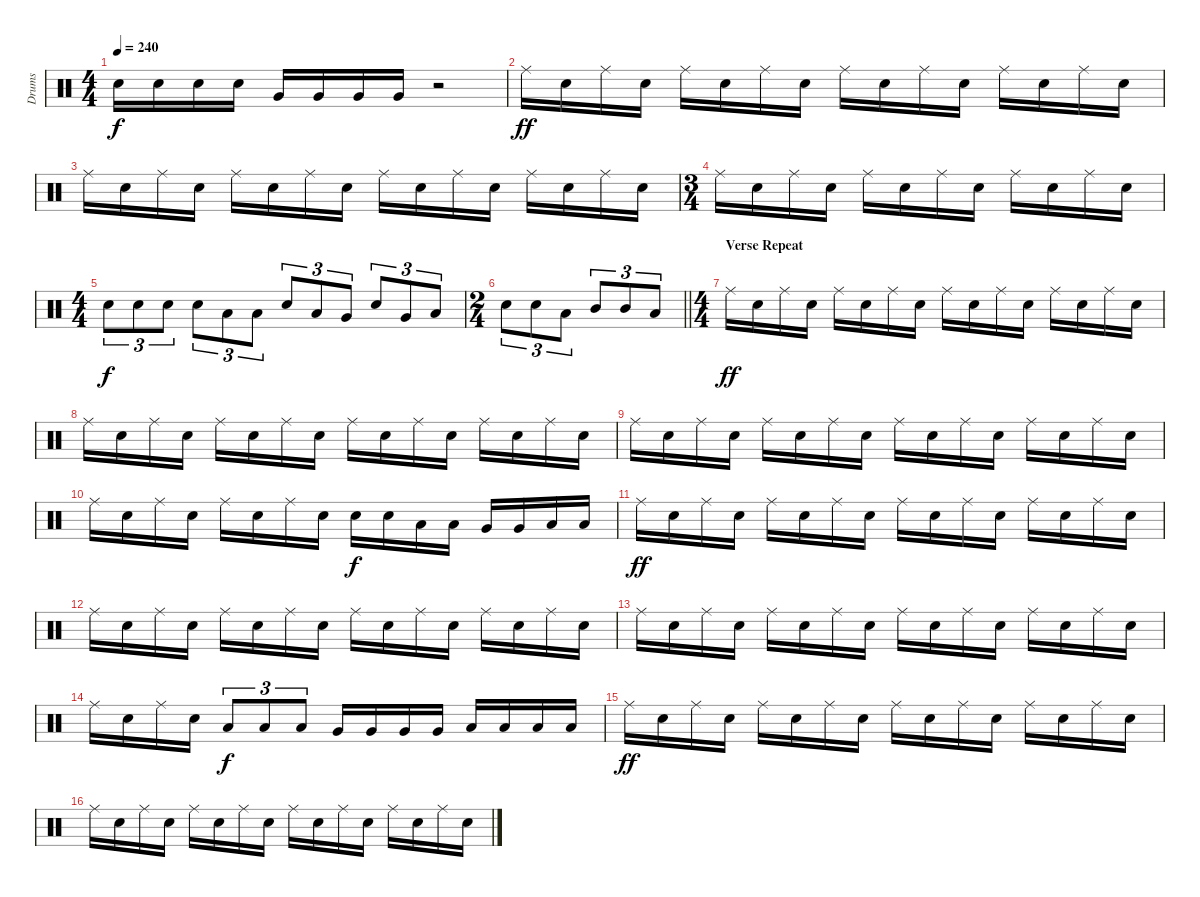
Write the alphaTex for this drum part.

\track ("Drums" "Drums") {instrument percussion}
\staff {score}
\articulation defaults
\ts (4 4)
\tempo 240
\clef neutral
\ks c "Electric Snare (hit)".16{dy f} "Electric Snare (hit)".16 "Electric Snare (hit)".16 "Electric Snare (hit)".16 "Very Low Tom (hit)".16 "Very Low Tom (hit)".16 "Very Low Tom (hit)".16 "Very Low Tom (hit)".16
r.2 |
"Ride (middle)".16{dy ff} "Electric Snare (hit)".16 "Ride (middle)".16 "Electric Snare (hit)".16 "Ride (middle)".16 "Electric Snare (hit)".16 "Ride (middle)".16 "Electric Snare (hit)".16 "Ride (middle)".16 "Electric Snare (hit)".16 "Ride (middle)".16 "Electric Snare (hit)".16 "Ride (middle)".16 "Electric Snare (hit)".16 "Ride (middle)".16 "Electric Snare (hit)".16 |
"Ride (middle)".16 "Electric Snare (hit)".16 "Ride (middle)".16 "Electric Snare (hit)".16 "Ride (middle)".16 "Electric Snare (hit)".16 "Ride (middle)".16 "Electric Snare (hit)".16 "Ride (middle)".16 "Electric Snare (hit)".16 "Ride (middle)".16 "Electric Snare (hit)".16 "Ride (middle)".16 "Electric Snare (hit)".16 "Ride (middle)".16 "Electric Snare (hit)".16 |
\ts (3 4)
"Ride (middle)".16 "Electric Snare (hit)".16 "Ride (middle)".16 "Electric Snare (hit)".16 "Ride (middle)".16 "Electric Snare (hit)".16 "Ride (middle)".16 "Electric Snare (hit)".16 "Ride (middle)".16 "Electric Snare (hit)".16 "Ride (middle)".16 "Electric Snare (hit)".16 |
\ts (4 4)
"Electric Snare (hit)".8{tu (3 2) dy f} "Electric Snare (hit)".8{tu (3 2)} "Electric Snare (hit)".8{tu (3 2)} "Electric Snare (hit)".8{tu (3 2)} "Low Tom (hit)".8{tu (3 2)} "Low Tom (hit)".8{tu (3 2)} "Electric Snare (hit)".8{tu (3 2)} "Low Tom (hit)".8{tu (3 2)} "Very Low Tom (hit)".8{tu (3 2)} "Electric Snare (hit)".8{tu (3 2)} "Very Low Tom (hit)".8{tu (3 2)} "Low Floor Tom (hit)".8{tu (3 2)} |
\ts (2 4)
\barLineRight lightlight "Electric Snare (hit)".8{tu (3 2)} "Electric Snare (hit)".8{tu (3 2)} "Low Tom (hit)".8{tu (3 2)} "Mid Tom (hit)".8{tu (3 2)} "Mid Tom (hit)".8{tu (3 2)} "Low Tom (hit)".8{tu (3 2)}
|
\ts (4 4)
\section ("" "Verse Repeat")
"Ride (middle)".16{dy ff} "Electric Snare (hit)".16 "Ride (middle)".16 "Electric Snare (hit)".16 "Ride (middle)".16 "Electric Snare (hit)".16 "Ride (middle)".16 "Electric Snare (hit)".16 "Ride (middle)".16 "Electric Snare (hit)".16 "Ride (middle)".16 "Electric Snare (hit)".16 "Ride (middle)".16 "Electric Snare (hit)".16 "Ride (middle)".16 "Electric Snare (hit)".16 |
"Ride (middle)".16 "Electric Snare (hit)".16 "Ride (middle)".16 "Electric Snare (hit)".16 "Ride (middle)".16 "Electric Snare (hit)".16 "Ride (middle)".16 "Electric Snare (hit)".16 "Ride (middle)".16 "Electric Snare (hit)".16 "Ride (middle)".16 "Electric Snare (hit)".16 "Ride (middle)".16 "Electric Snare (hit)".16 "Ride (middle)".16 "Electric Snare (hit)".16 |
"Ride (middle)".16 "Electric Snare (hit)".16 "Ride (middle)".16 "Electric Snare (hit)".16 "Ride (middle)".16 "Electric Snare (hit)".16 "Ride (middle)".16 "Electric Snare (hit)".16 "Ride (middle)".16 "Electric Snare (hit)".16 "Ride (middle)".16 "Electric Snare (hit)".16 "Ride (middle)".16 "Electric Snare (hit)".16 "Ride (middle)".16 "Electric Snare (hit)".16 |
"Ride (middle)".16 "Electric Snare (hit)".16 "Ride (middle)".16 "Electric Snare (hit)".16 "Ride (middle)".16 "Electric Snare (hit)".16 "Ride (middle)".16 "Electric Snare (hit)".16 "Electric Snare (hit)".16{dy f} "Electric Snare (hit)".16 "Low Tom (hit)".16 "Low Tom (hit)".16 "Very Low Tom (hit)".16 "Very Low Tom (hit)".16 "Low Floor Tom (hit)".16 "Low Floor Tom (hit)".16 |
"Ride (middle)".16{dy ff} "Electric Snare (hit)".16 "Ride (middle)".16 "Electric Snare (hit)".16 "Ride (middle)".16 "Electric Snare (hit)".16 "Ride (middle)".16 "Electric Snare (hit)".16 "Ride (middle)".16 "Electric Snare (hit)".16 "Ride (middle)".16 "Electric Snare (hit)".16 "Ride (middle)".16 "Electric Snare (hit)".16 "Ride (middle)".16 "Electric Snare (hit)".16 |
"Ride (middle)".16 "Electric Snare (hit)".16 "Ride (middle)".16 "Electric Snare (hit)".16 "Ride (middle)".16 "Electric Snare (hit)".16 "Ride (middle)".16 "Electric Snare (hit)".16 "Ride (middle)".16 "Electric Snare (hit)".16 "Ride (middle)".16 "Electric Snare (hit)".16 "Ride (middle)".16 "Electric Snare (hit)".16 "Ride (middle)".16 "Electric Snare (hit)".16 |
"Ride (middle)".16 "Electric Snare (hit)".16 "Ride (middle)".16 "Electric Snare (hit)".16 "Ride (middle)".16 "Electric Snare (hit)".16 "Ride (middle)".16 "Electric Snare (hit)".16 "Ride (middle)".16 "Electric Snare (hit)".16 "Ride (middle)".16 "Electric Snare (hit)".16 "Ride (middle)".16 "Electric Snare (hit)".16 "Ride (middle)".16 "Electric Snare (hit)".16 |
"Ride (middle)".16 "Electric Snare (hit)".16 "Ride (middle)".16 "Electric Snare (hit)".16 "Low Tom (hit)".8{tu (3 2) dy f} "Low Tom (hit)".8{tu (3 2)} "Low Tom (hit)".8{tu (3 2)} "Very Low Tom (hit)".16 "Very Low Tom (hit)".16 "Very Low Tom (hit)".16 "Very Low Tom (hit)".16 "Low Floor Tom (hit)".16 "Low Floor Tom (hit)".16 "Low Floor Tom (hit)".16 "Low Floor Tom (hit)".16 |
"Ride (middle)".16{dy ff} "Electric Snare (hit)".16 "Ride (middle)".16 "Electric Snare (hit)".16 "Ride (middle)".16 "Electric Snare (hit)".16 "Ride (middle)".16 "Electric Snare (hit)".16 "Ride (middle)".16 "Electric Snare (hit)".16 "Ride (middle)".16 "Electric Snare (hit)".16 "Ride (middle)".16 "Electric Snare (hit)".16 "Ride (middle)".16 "Electric Snare (hit)".16 |
"Ride (middle)".16 "Electric Snare (hit)".16 "Ride (middle)".16 "Electric Snare (hit)".16 "Ride (middle)".16 "Electric Snare (hit)".16 "Ride (middle)".16 "Electric Snare (hit)".16 "Ride (middle)".16 "Electric Snare (hit)".16 "Ride (middle)".16 "Electric Snare (hit)".16 "Ride (middle)".16 "Electric Snare (hit)".16 "Ride (middle)".16 "Electric Snare (hit)".16
